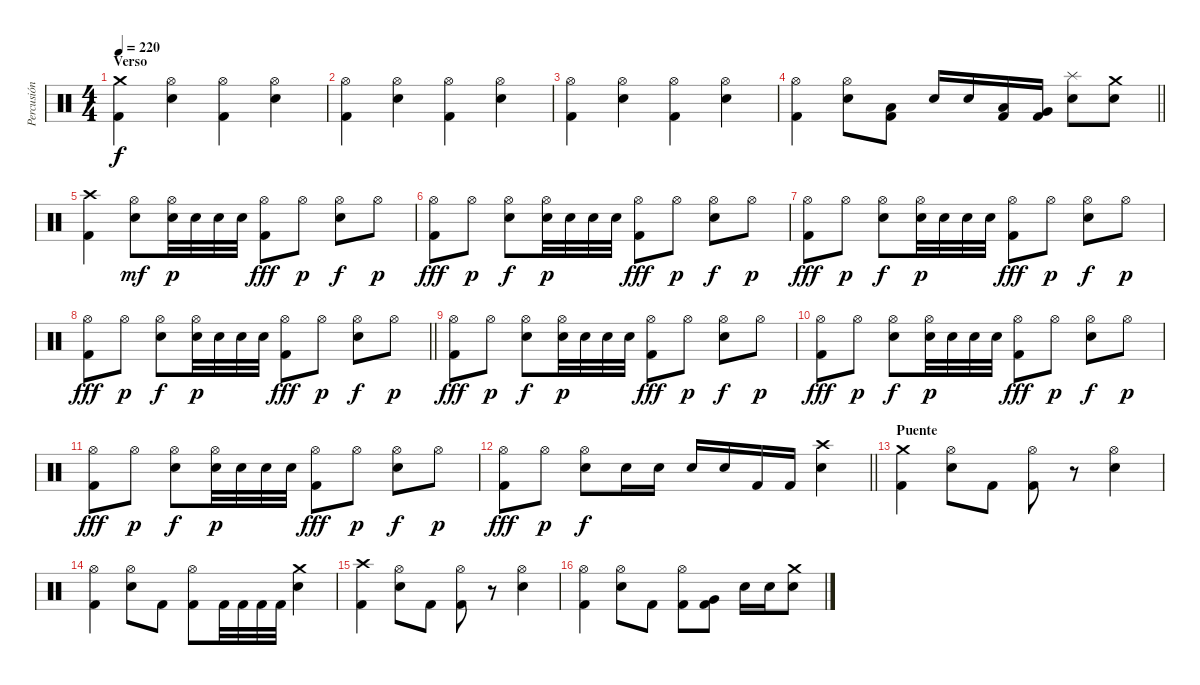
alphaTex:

\track ("Percusión" "Percusión") {instrument percussion}
\staff {score}
\articulation defaults
\ts (4 4)
\section ("" "Verso")
\tempo 220
\clef neutral
\ks c
("Crash medium (hit)" "Kick (hit) 2").4{dy f} ("Hi-Hat (open)" "Snare (hit) 2").4 ("Hi-Hat (open)" "Kick (hit) 2").4 ("Hi-Hat (open)" "Snare (hit) 2").4 |
("Hi-Hat (open)" "Kick (hit) 2").4 ("Hi-Hat (open)" "Snare (hit) 2").4 ("Hi-Hat (open)" "Kick (hit) 2").4 ("Hi-Hat (open)" "Snare (hit) 2").4 |
("Hi-Hat (open)" "Kick (hit) 2").4 ("Hi-Hat (open)" "Snare (hit) 2").4 ("Hi-Hat (open)" "Kick (hit) 2").4 ("Hi-Hat (open)" "Snare (hit) 2").4 |
\barLineRight lightlight
("Hi-Hat (open)" "Kick (hit) 2").4 ("Hi-Hat (open)" "Snare (hit) 2").8 ("Low Floor Tom (hit)" "Kick (hit) 2").8 "Snare (hit) 2".16 "Snare (hit) 2".16 ("Low Tom (hit)" "Kick (hit) 2").16 ("Very Low Tom (hit)" "Kick (hit) 2").16 ("Splash (hit)" "Snare (hit) 2").8 ("Crash medium (hit)" "Snare (hit) 2").8 |
("Crash high (hit)" "Kick (hit) 2").4 ("Hi-Hat (open)" "Snare (hit) 2").8{dy mf} ("Hi-Hat (open)" "Snare (hit) 2").32{dy p} "Snare (hit) 2".32 "Snare (hit) 2".32 "Snare (hit) 2".32 ("Hi-Hat (open)" "Kick (hit) 2").8{dy fff} "Hi-Hat (open)".8{dy p} ("Hi-Hat (open)" "Snare (hit) 2").8{dy f} "Hi-Hat (open)".8{dy p} |
("Hi-Hat (open)" "Kick (hit) 2").8{dy fff} "Hi-Hat (open)".8{dy p} ("Hi-Hat (open)" "Snare (hit) 2").8{dy f} ("Hi-Hat (open)" "Snare (hit) 2").32{dy p} "Snare (hit) 2".32 "Snare (hit) 2".32 "Snare (hit) 2".32 ("Hi-Hat (open)" "Kick (hit) 2").8{dy fff} "Hi-Hat (open)".8{dy p} ("Hi-Hat (open)" "Snare (hit) 2").8{dy f} "Hi-Hat (open)".8{dy p} |
("Hi-Hat (open)" "Kick (hit) 2").8{dy fff} "Hi-Hat (open)".8{dy p} ("Hi-Hat (open)" "Snare (hit) 2").8{dy f} ("Hi-Hat (open)" "Snare (hit) 2").32{dy p} "Snare (hit) 2".32 "Snare (hit) 2".32 "Snare (hit) 2".32 ("Hi-Hat (open)" "Kick (hit) 2").8{dy fff} "Hi-Hat (open)".8{dy p} ("Hi-Hat (open)" "Snare (hit) 2").8{dy f} "Hi-Hat (open)".8{dy p} |
\barLineRight lightlight
("Hi-Hat (open)" "Kick (hit) 2").8{dy fff} "Hi-Hat (open)".8{dy p} ("Hi-Hat (open)" "Snare (hit) 2").8{dy f} ("Hi-Hat (open)" "Snare (hit) 2").32{dy p} "Snare (hit) 2".32 "Snare (hit) 2".32 "Snare (hit) 2".32 ("Hi-Hat (open)" "Kick (hit) 2").8{dy fff} "Hi-Hat (open)".8{dy p} ("Hi-Hat (open)" "Snare (hit) 2").8{dy f} "Hi-Hat (open)".8{dy p} |
\section ("" "")
("Hi-Hat (open)" "Kick (hit) 2").8{dy fff} "Hi-Hat (open)".8{dy p} ("Hi-Hat (open)" "Snare (hit) 2").8{dy f} ("Hi-Hat (open)" "Snare (hit) 2").32{dy p} "Snare (hit) 2".32 "Snare (hit) 2".32 "Snare (hit) 2".32 ("Hi-Hat (open)" "Kick (hit) 2").8{dy fff} "Hi-Hat (open)".8{dy p} ("Hi-Hat (open)" "Snare (hit) 2").8{dy f} "Hi-Hat (open)".8{dy p} |
("Hi-Hat (open)" "Kick (hit) 2").8{dy fff} "Hi-Hat (open)".8{dy p} ("Hi-Hat (open)" "Snare (hit) 2").8{dy f} ("Hi-Hat (open)" "Snare (hit) 2").32{dy p} "Snare (hit) 2".32 "Snare (hit) 2".32 "Snare (hit) 2".32 ("Hi-Hat (open)" "Kick (hit) 2").8{dy fff} "Hi-Hat (open)".8{dy p} ("Hi-Hat (open)" "Snare (hit) 2").8{dy f} "Hi-Hat (open)".8{dy p} |
("Hi-Hat (open)" "Kick (hit) 2").8{dy fff} "Hi-Hat (open)".8{dy p} ("Hi-Hat (open)" "Snare (hit) 2").8{dy f} ("Hi-Hat (open)" "Snare (hit) 2").32{dy p} "Snare (hit) 2".32 "Snare (hit) 2".32 "Snare (hit) 2".32 ("Hi-Hat (open)" "Kick (hit) 2").8{dy fff} "Hi-Hat (open)".8{dy p} ("Hi-Hat (open)" "Snare (hit) 2").8{dy f} "Hi-Hat (open)".8{dy p} |
\barLineRight lightlight
("Hi-Hat (open)" "Kick (hit) 2").8{dy fff} "Hi-Hat (open)".8{dy p} ("Hi-Hat (open)" "Snare (hit) 2").8{dy f} "Snare (hit) 2".16 "Snare (hit) 2".16 "Snare (hit) 2".16 "Snare (hit) 2".16 "Kick (hit) 2".16 "Kick (hit) 2".16 ("Crash high (hit)" "Snare (hit) 2").4 |
\section ("" "Puente")
("Crash medium (hit)" "Kick (hit) 2").4 ("Hi-Hat (open)" "Snare (hit) 2").8 "Kick (hit) 2".8 ("Hi-Hat (open)" "Kick (hit) 2").8 r.8 ("Hi-Hat (open)" "Snare (hit) 2").4 |
("Hi-Hat (open)" "Kick (hit) 2").4 ("Hi-Hat (open)" "Snare (hit) 2").8 "Kick (hit) 2".8 ("Hi-Hat (open)" "Kick (hit) 2").8 "Kick (hit) 2".32 "Kick (hit) 2".32 "Kick (hit) 2".32 "Kick (hit) 2".32 ("Crash medium (hit)" "Snare (hit) 2").4 |
("Crash high (hit)" "Kick (hit) 2").4 ("Hi-Hat (open)" "Snare (hit) 2").8 "Kick (hit) 2".8 ("Hi-Hat (open)" "Kick (hit) 2").8 r.8 ("Hi-Hat (open)" "Snare (hit) 2").4 |
("Hi-Hat (open)" "Kick (hit) 2").4 ("Hi-Hat (open)" "Snare (hit) 2").8 "Kick (hit) 2".8 ("Hi-Hat (open)" "Kick (hit) 2").8 ("Very Low Tom (hit)" "Kick (hit) 2").8 "Snare (hit) 2".16 "Snare (hit) 2".16 ("Crash medium (hit)" "Snare (hit) 2").8
